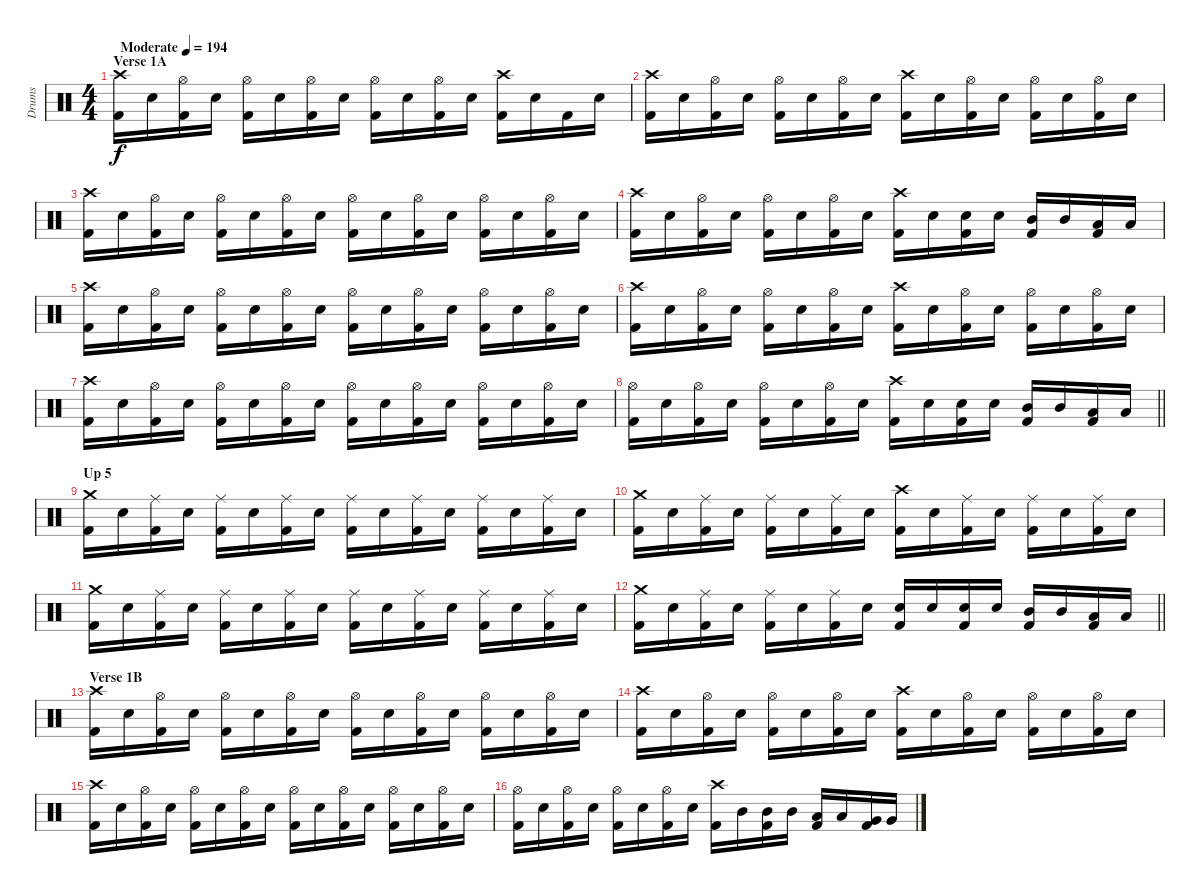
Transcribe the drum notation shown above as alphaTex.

\track ("Drums" "Drums") {instrument percussion}
\staff {score}
\articulation defaults
\ts (4 4)
\section ("" "Verse 1A")
\tempo (194 "Moderate")
\clef neutral
\ks c
("Crash high (hit)" "Kick (hit) 2").16{dy f} "Electric Snare (hit)".16 ("Hi-Hat (open)" "Kick (hit) 2").16 "Electric Snare (hit)".16 ("Hi-Hat (open)" "Kick (hit) 2").16 "Electric Snare (hit)".16 ("Hi-Hat (open)" "Kick (hit) 2").16 "Electric Snare (hit)".16 ("Hi-Hat (open)" "Kick (hit) 2").16 "Electric Snare (hit)".16 ("Hi-Hat (open)" "Kick (hit) 2").16 "Electric Snare (hit)".16 ("Crash high (hit)" "Kick (hit) 2").16 "Electric Snare (hit)".16 "Kick (hit) 2".16 "Electric Snare (hit)".16 |
("Crash high (hit)" "Kick (hit) 2").16 "Electric Snare (hit)".16 ("Hi-Hat (open)" "Kick (hit) 2").16 "Electric Snare (hit)".16 ("Hi-Hat (open)" "Kick (hit) 2").16 "Electric Snare (hit)".16 ("Hi-Hat (open)" "Kick (hit) 2").16 "Electric Snare (hit)".16 ("Crash high (hit)" "Kick (hit) 2").16 "Electric Snare (hit)".16 ("Hi-Hat (open)" "Kick (hit) 2").16 "Electric Snare (hit)".16 ("Hi-Hat (open)" "Kick (hit) 2").16 "Electric Snare (hit)".16 ("Hi-Hat (open)" "Kick (hit) 2").16 "Electric Snare (hit)".16 |
("Crash high (hit)" "Kick (hit) 2").16 "Electric Snare (hit)".16 ("Hi-Hat (open)" "Kick (hit) 2").16 "Electric Snare (hit)".16 ("Hi-Hat (open)" "Kick (hit) 2").16 "Electric Snare (hit)".16 ("Hi-Hat (open)" "Kick (hit) 2").16 "Electric Snare (hit)".16 ("Hi-Hat (open)" "Kick (hit) 2").16 "Electric Snare (hit)".16 ("Hi-Hat (open)" "Kick (hit) 2").16 "Electric Snare (hit)".16 ("Hi-Hat (open)" "Kick (hit) 2").16 "Electric Snare (hit)".16 ("Hi-Hat (open)" "Kick (hit) 2").16 "Electric Snare (hit)".16 |
("Crash high (hit)" "Kick (hit) 2").16 "Electric Snare (hit)".16 ("Hi-Hat (open)" "Kick (hit) 2").16 "Electric Snare (hit)".16 ("Hi-Hat (open)" "Kick (hit) 2").16 "Electric Snare (hit)".16 ("Hi-Hat (open)" "Kick (hit) 2").16 "Electric Snare (hit)".16 ("Crash high (hit)" "Kick (hit) 2").16 "Electric Snare (hit)".16 ("Electric Snare (hit)" "Kick (hit) 2").16 "Electric Snare (hit)".16 ("Mid Tom (hit)" "Kick (hit) 2").16 "Mid Tom (hit)".16 ("Low Tom (hit)" "Kick (hit) 2").16 "Low Tom (hit)".16 |
("Crash high (hit)" "Kick (hit) 2").16 "Electric Snare (hit)".16 ("Hi-Hat (open)" "Kick (hit) 2").16 "Electric Snare (hit)".16 ("Hi-Hat (open)" "Kick (hit) 2").16 "Electric Snare (hit)".16 ("Hi-Hat (open)" "Kick (hit) 2").16 "Electric Snare (hit)".16 ("Hi-Hat (open)" "Kick (hit) 2").16 "Electric Snare (hit)".16 ("Hi-Hat (open)" "Kick (hit) 2").16 "Electric Snare (hit)".16 ("Hi-Hat (open)" "Kick (hit) 2").16 "Electric Snare (hit)".16 ("Hi-Hat (open)" "Kick (hit) 2").16 "Electric Snare (hit)".16 |
("Crash high (hit)" "Kick (hit) 2").16 "Electric Snare (hit)".16 ("Hi-Hat (open)" "Kick (hit) 2").16 "Electric Snare (hit)".16 ("Hi-Hat (open)" "Kick (hit) 2").16 "Electric Snare (hit)".16 ("Hi-Hat (open)" "Kick (hit) 2").16 "Electric Snare (hit)".16 ("Crash high (hit)" "Kick (hit) 2").16 "Electric Snare (hit)".16 ("Hi-Hat (open)" "Kick (hit) 2").16 "Electric Snare (hit)".16 ("Hi-Hat (open)" "Kick (hit) 2").16 "Electric Snare (hit)".16 ("Hi-Hat (open)" "Kick (hit) 2").16 "Electric Snare (hit)".16 |
("Crash high (hit)" "Kick (hit) 2").16 "Electric Snare (hit)".16 ("Hi-Hat (open)" "Kick (hit) 2").16 "Electric Snare (hit)".16 ("Hi-Hat (open)" "Kick (hit) 2").16 "Electric Snare (hit)".16 ("Hi-Hat (open)" "Kick (hit) 2").16 "Electric Snare (hit)".16 ("Hi-Hat (open)" "Kick (hit) 2").16 "Electric Snare (hit)".16 ("Hi-Hat (open)" "Kick (hit) 2").16 "Electric Snare (hit)".16 ("Hi-Hat (open)" "Kick (hit) 2").16 "Electric Snare (hit)".16 ("Hi-Hat (open)" "Kick (hit) 2").16 "Electric Snare (hit)".16 |
\barLineRight lightlight
("Hi-Hat (open)" "Kick (hit) 2").16 "Electric Snare (hit)".16 ("Hi-Hat (open)" "Kick (hit) 2").16 "Electric Snare (hit)".16 ("Hi-Hat (open)" "Kick (hit) 2").16 "Electric Snare (hit)".16 ("Hi-Hat (open)" "Kick (hit) 2").16 "Electric Snare (hit)".16 ("Crash high (hit)" "Kick (hit) 2").16 "Electric Snare (hit)".16 ("Electric Snare (hit)" "Kick (hit) 2").16 "Electric Snare (hit)".16 ("Mid Tom (hit)" "Kick (hit) 2").16 "Mid Tom (hit)".16 ("Low Tom (hit)" "Kick (hit) 2").16 "Low Tom (hit)".16 |
\section ("" "Up 5")
("Crash medium (hit)" "Kick (hit) 2").16 "Electric Snare (hit)".16 ("Ride (middle)" "Kick (hit) 2").16 "Electric Snare (hit)".16 ("Ride (middle)" "Kick (hit) 2").16 "Electric Snare (hit)".16 ("Ride (middle)" "Kick (hit) 2").16 "Electric Snare (hit)".16 ("Ride (middle)" "Kick (hit) 2").16 "Electric Snare (hit)".16 ("Ride (middle)" "Kick (hit) 2").16 "Electric Snare (hit)".16 ("Ride (middle)" "Kick (hit) 2").16 "Electric Snare (hit)".16 ("Ride (middle)" "Kick (hit) 2").16 "Electric Snare (hit)".16 |
("Crash medium (hit)" "Kick (hit) 2").16 "Electric Snare (hit)".16 ("Ride (middle)" "Kick (hit) 2").16 "Electric Snare (hit)".16 ("Ride (middle)" "Kick (hit) 2").16 "Electric Snare (hit)".16 ("Ride (middle)" "Kick (hit) 2").16 "Electric Snare (hit)".16 ("Crash high (hit)" "Kick (hit) 2").16 "Electric Snare (hit)".16 ("Ride (middle)" "Kick (hit) 2").16 "Electric Snare (hit)".16 ("Ride (middle)" "Kick (hit) 2").16 "Electric Snare (hit)".16 ("Ride (middle)" "Kick (hit) 2").16 "Electric Snare (hit)".16 |
("Crash medium (hit)" "Kick (hit) 2").16 "Electric Snare (hit)".16 ("Ride (middle)" "Kick (hit) 2").16 "Electric Snare (hit)".16 ("Ride (middle)" "Kick (hit) 2").16 "Electric Snare (hit)".16 ("Ride (middle)" "Kick (hit) 2").16 "Electric Snare (hit)".16 ("Ride (middle)" "Kick (hit) 2").16 "Electric Snare (hit)".16 ("Ride (middle)" "Kick (hit) 2").16 "Electric Snare (hit)".16 ("Ride (middle)" "Kick (hit) 2").16 "Electric Snare (hit)".16 ("Ride (middle)" "Kick (hit) 2").16 "Electric Snare (hit)".16 |
\barLineRight lightlight
("Crash medium (hit)" "Kick (hit) 2").16 "Electric Snare (hit)".16 ("Ride (middle)" "Kick (hit) 2").16 "Electric Snare (hit)".16 ("Ride (middle)" "Kick (hit) 2").16 "Electric Snare (hit)".16 ("Ride (middle)" "Kick (hit) 2").16 "Electric Snare (hit)".16 ("Electric Snare (hit)" "Kick (hit) 2").16 "Electric Snare (hit)".16 ("Electric Snare (hit)" "Kick (hit) 2").16 "Electric Snare (hit)".16 ("Mid Tom (hit)" "Kick (hit) 2").16 "Mid Tom (hit)".16 ("Low Tom (hit)" "Kick (hit) 2").16 "Low Tom (hit)".16 |
\section ("" "Verse 1B")
("Crash high (hit)" "Kick (hit) 2").16 "Electric Snare (hit)".16 ("Hi-Hat (open)" "Kick (hit) 2").16 "Electric Snare (hit)".16 ("Hi-Hat (open)" "Kick (hit) 2").16 "Electric Snare (hit)".16 ("Hi-Hat (open)" "Kick (hit) 2").16 "Electric Snare (hit)".16 ("Hi-Hat (open)" "Kick (hit) 2").16 "Electric Snare (hit)".16 ("Hi-Hat (open)" "Kick (hit) 2").16 "Electric Snare (hit)".16 ("Hi-Hat (open)" "Kick (hit) 2").16 "Electric Snare (hit)".16 ("Hi-Hat (open)" "Kick (hit) 2").16 "Electric Snare (hit)".16 |
("Crash high (hit)" "Kick (hit) 2").16 "Electric Snare (hit)".16 ("Hi-Hat (open)" "Kick (hit) 2").16 "Electric Snare (hit)".16 ("Hi-Hat (open)" "Kick (hit) 2").16 "Electric Snare (hit)".16 ("Hi-Hat (open)" "Kick (hit) 2").16 "Electric Snare (hit)".16 ("Crash high (hit)" "Kick (hit) 2").16 "Electric Snare (hit)".16 ("Hi-Hat (open)" "Kick (hit) 2").16 "Electric Snare (hit)".16 ("Hi-Hat (open)" "Kick (hit) 2").16 "Electric Snare (hit)".16 ("Hi-Hat (open)" "Kick (hit) 2").16 "Electric Snare (hit)".16 |
("Crash high (hit)" "Kick (hit) 2").16 "Electric Snare (hit)".16 ("Hi-Hat (open)" "Kick (hit) 2").16 "Electric Snare (hit)".16 ("Hi-Hat (open)" "Kick (hit) 2").16 "Electric Snare (hit)".16 ("Hi-Hat (open)" "Kick (hit) 2").16 "Electric Snare (hit)".16 ("Hi-Hat (open)" "Kick (hit) 2").16 "Electric Snare (hit)".16 ("Hi-Hat (open)" "Kick (hit) 2").16 "Electric Snare (hit)".16 ("Hi-Hat (open)" "Kick (hit) 2").16 "Electric Snare (hit)".16 ("Hi-Hat (open)" "Kick (hit) 2").16 "Electric Snare (hit)".16 |
("Hi-Hat (open)" "Kick (hit) 2").16 "Electric Snare (hit)".16 ("Hi-Hat (open)" "Kick (hit) 2").16 "Electric Snare (hit)".16 ("Hi-Hat (open)" "Kick (hit) 2").16 "Electric Snare (hit)".16 ("Hi-Hat (open)" "Kick (hit) 2").16 "Electric Snare (hit)".16 ("Crash high (hit)" "Kick (hit) 2").16 "Mid Tom (hit)".16 ("Mid Tom (hit)" "Kick (hit) 2").16 "Mid Tom (hit)".16 ("Low Tom (hit)" "Kick (hit) 2").16 "Low Tom (hit)".16 ("Very Low Tom (hit)" "Kick (hit) 2").16 "Very Low Tom (hit)".16
